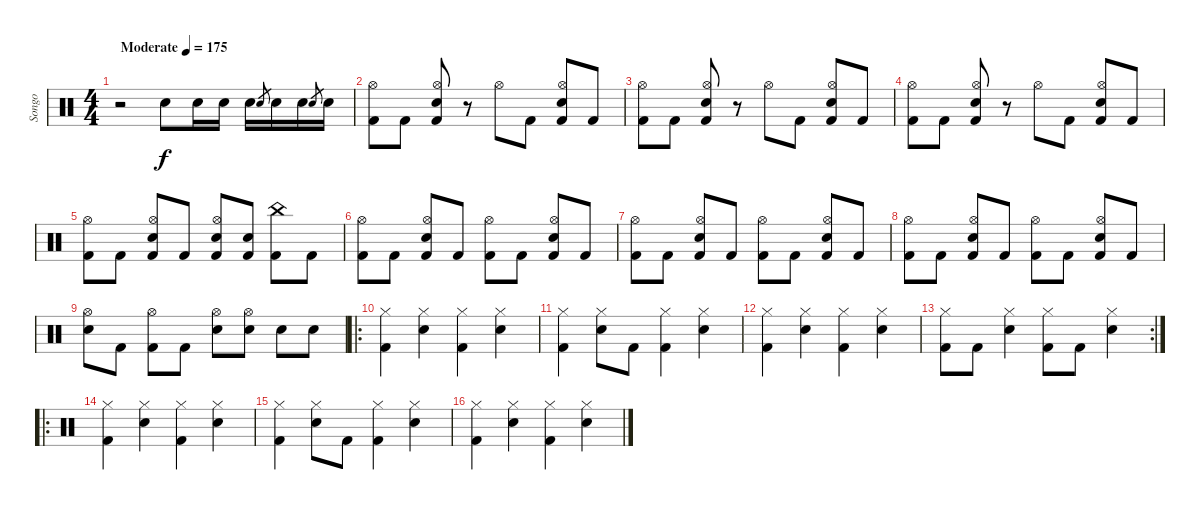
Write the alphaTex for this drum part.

\track ("Songo" "Songo") {instrument percussion}
\staff {score}
\articulation defaults
\ts (4 4)
\tempo (175 "Moderate")
\clef neutral
\ks c
r.2{dy f} "Electric Snare (hit)".8 "Electric Snare (hit)".16 "Electric Snare (hit)".16 "Electric Snare (hit)".16 "Electric Snare (hit)".8{gr} "Electric Snare (hit)".16 "Electric Snare (hit)".16 "Electric Snare (hit)".8{gr} "Electric Snare (hit)".16 |
("Hi-Hat (open)" "Kick (hit) 2").8 "Kick (hit) 2".8 ("Hi-Hat (open)" "Electric Snare (hit)" "Kick (hit) 2").8 r.8 "Hi-Hat (open)".8 "Kick (hit) 2".8 ("Hi-Hat (open)" "Electric Snare (hit)" "Kick (hit) 2").8 "Kick (hit) 2".8 |
("Hi-Hat (open)" "Kick (hit) 2").8 "Kick (hit) 2".8 ("Hi-Hat (open)" "Electric Snare (hit)" "Kick (hit) 2").8 r.8 "Hi-Hat (open)".8 "Kick (hit) 2".8 ("Hi-Hat (open)" "Electric Snare (hit)" "Kick (hit) 2").8 "Kick (hit) 2".8 |
("Hi-Hat (open)" "Kick (hit) 2").8 "Kick (hit) 2".8 ("Hi-Hat (open)" "Electric Snare (hit)" "Kick (hit) 2").8 r.8 "Hi-Hat (open)".8 "Kick (hit) 2".8 ("Hi-Hat (open)" "Electric Snare (hit)" "Kick (hit) 2").8 "Kick (hit) 2".8 |
("Hi-Hat (open)" "Kick (hit) 2").8 "Kick (hit) 2".8 ("Hi-Hat (open)" "Electric Snare (hit)" "Kick (hit) 2").8 "Kick (hit) 2".8 ("Hi-Hat (open)" "Electric Snare (hit)" "Kick (hit) 2").8 ("Electric Snare (hit)" "Kick (hit) 2").8 ("China (hit)" "Kick (hit) 2").8 "Kick (hit) 2".8 |
("Hi-Hat (open)" "Kick (hit) 2").8 "Kick (hit) 2".8 ("Hi-Hat (open)" "Electric Snare (hit)" "Kick (hit) 2").8 "Kick (hit) 2".8 ("Hi-Hat (open)" "Kick (hit) 2").8 "Kick (hit) 2".8 ("Hi-Hat (open)" "Electric Snare (hit)" "Kick (hit) 2").8 "Kick (hit) 2".8 |
("Hi-Hat (open)" "Kick (hit) 2").8 "Kick (hit) 2".8 ("Hi-Hat (open)" "Electric Snare (hit)" "Kick (hit) 2").8 "Kick (hit) 2".8 ("Hi-Hat (open)" "Kick (hit) 2").8 "Kick (hit) 2".8 ("Hi-Hat (open)" "Electric Snare (hit)" "Kick (hit) 2").8 "Kick (hit) 2".8 |
("Hi-Hat (open)" "Kick (hit) 2").8 "Kick (hit) 2".8 ("Hi-Hat (open)" "Electric Snare (hit)" "Kick (hit) 2").8 "Kick (hit) 2".8 ("Hi-Hat (open)" "Kick (hit) 2").8 "Kick (hit) 2".8 ("Hi-Hat (open)" "Electric Snare (hit)" "Kick (hit) 2").8 "Kick (hit) 2".8 |
("Hi-Hat (open)" "Electric Snare (hit)").8 "Kick (hit) 2".8 ("Hi-Hat (open)" "Kick (hit) 2").8 "Kick (hit) 2".8 ("Hi-Hat (open)" "Electric Snare (hit)").8 ("Hi-Hat (open)" "Electric Snare (hit)").8 "Electric Snare (hit)".8 "Electric Snare (hit)".8 |
\ro
("Hi-Hat (closed)" "Kick (hit) 2").4 ("Hi-Hat (closed)" "Electric Snare (hit)").4 ("Hi-Hat (closed)" "Kick (hit) 2").4 ("Hi-Hat (closed)" "Electric Snare (hit)").4 |
("Hi-Hat (closed)" "Kick (hit) 2").4 ("Hi-Hat (closed)" "Electric Snare (hit)").8 "Kick (hit) 2".8 ("Hi-Hat (closed)" "Kick (hit) 2").4 ("Hi-Hat (closed)" "Electric Snare (hit)").4 |
("Hi-Hat (closed)" "Kick (hit) 2").4 ("Hi-Hat (closed)" "Electric Snare (hit)").4 ("Hi-Hat (closed)" "Kick (hit) 2").4 ("Hi-Hat (closed)" "Electric Snare (hit)").4 |
\rc 2
("Hi-Hat (closed)" "Kick (hit) 2").8 "Kick (hit) 2".8 ("Hi-Hat (closed)" "Electric Snare (hit)").4 ("Hi-Hat (closed)" "Kick (hit) 2").8 "Kick (hit) 2".8 ("Hi-Hat (closed)" "Electric Snare (hit)").4 |
\ro
("Hi-Hat (closed)" "Kick (hit) 2").4 ("Hi-Hat (closed)" "Electric Snare (hit)").4 ("Hi-Hat (closed)" "Kick (hit) 2").4 ("Hi-Hat (closed)" "Electric Snare (hit)").4 |
("Hi-Hat (closed)" "Kick (hit) 2").4 ("Hi-Hat (closed)" "Electric Snare (hit)").8 "Kick (hit) 2".8 ("Hi-Hat (closed)" "Kick (hit) 2").4 ("Hi-Hat (closed)" "Electric Snare (hit)").4 |
("Hi-Hat (closed)" "Kick (hit) 2").4 ("Hi-Hat (closed)" "Electric Snare (hit)").4 ("Hi-Hat (closed)" "Kick (hit) 2").4 ("Hi-Hat (closed)" "Electric Snare (hit)").4
